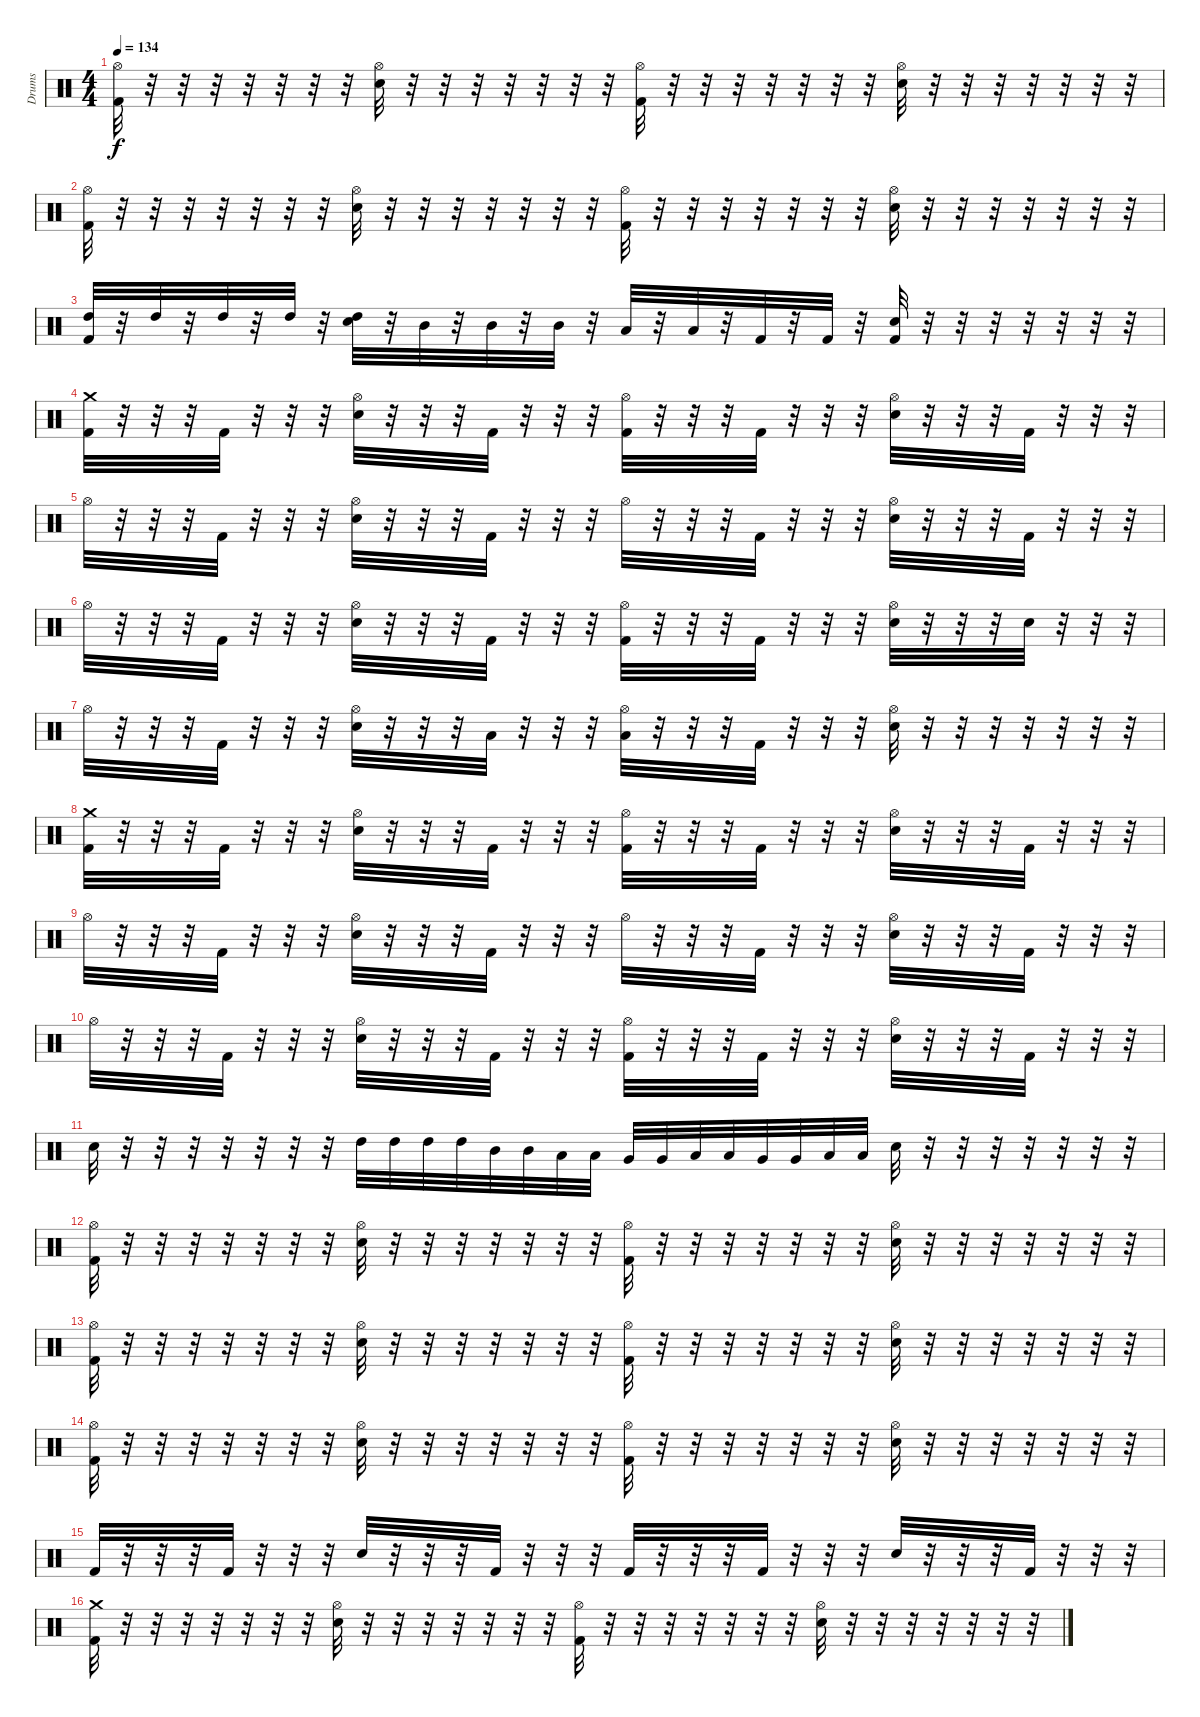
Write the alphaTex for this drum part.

\track ("Drums" "Drums") {instrument percussion}
\staff {score}
\articulation defaults
\ts (4 4)
\tempo 134
\clef neutral
\ks c
("Kick (hit) 2" "Hi-Hat (open)").32{dy f} r.32 r.32 r.32 r.32 r.32 r.32 r.32 ("Electric Snare (hit)" "Hi-Hat (open)").32 r.32 r.32 r.32 r.32 r.32 r.32 r.32 ("Kick (hit) 2" "Hi-Hat (open)").32 r.32 r.32 r.32 r.32 r.32 r.32 r.32 ("Electric Snare (hit)" "Hi-Hat (open)").32 r.32 r.32 r.32 r.32 r.32 r.32 r.32 |
("Kick (hit) 2" "Hi-Hat (open)").32 r.32 r.32 r.32 r.32 r.32 r.32 r.32 ("Electric Snare (hit)" "Hi-Hat (open)").32 r.32 r.32 r.32 r.32 r.32 r.32 r.32 ("Kick (hit) 2" "Hi-Hat (open)").32 r.32 r.32 r.32 r.32 r.32 r.32 r.32 ("Electric Snare (hit)" "Hi-Hat (open)").32 r.32 r.32 r.32 r.32 r.32 r.32 r.32 |
("Kick (hit) 2" "High Tom (hit)").32 r.32 "High Tom (hit)".32 r.32 "High Tom (hit)".32 r.32 "High Tom (hit)".32 r.32 ("Electric Snare (hit)" "High Tom (hit)").32 r.32 "Mid Tom (hit)".32 r.32 "Mid Tom (hit)".32 r.32 "Mid Tom (hit)".32 r.32 "Low Tom (hit)".32 r.32 "Low Tom (hit)".32 r.32 "Kick (hit) 2".32 r.32 "Kick (hit) 2".32 r.32 ("Electric Snare (hit)" "Kick (hit) 2").32 r.32 r.32 r.32 r.32 r.32 r.32 r.32 |
("Kick (hit) 2" "Crash medium (hit)").32 r.32 r.32 r.32 "Kick (hit) 2".32 r.32 r.32 r.32 ("Electric Snare (hit)" "Hi-Hat (open)").32 r.32 r.32 r.32 "Kick (hit) 2".32 r.32 r.32 r.32 ("Kick (hit) 2" "Hi-Hat (open)").32 r.32 r.32 r.32 "Kick (hit) 2".32 r.32 r.32 r.32 ("Electric Snare (hit)" "Hi-Hat (open)").32 r.32 r.32 r.32 "Kick (hit) 2".32 r.32 r.32 r.32 |
"Hi-Hat (open)".32 r.32 r.32 r.32 "Kick (hit) 2".32 r.32 r.32 r.32 ("Electric Snare (hit)" "Hi-Hat (open)").32 r.32 r.32 r.32 "Kick (hit) 2".32 r.32 r.32 r.32 "Hi-Hat (open)".32 r.32 r.32 r.32 "Kick (hit) 2".32 r.32 r.32 r.32 ("Electric Snare (hit)" "Hi-Hat (open)").32 r.32 r.32 r.32 "Kick (hit) 2".32 r.32 r.32 r.32 |
"Hi-Hat (open)".32 r.32 r.32 r.32 "Kick (hit) 2".32 r.32 r.32 r.32 ("Electric Snare (hit)" "Hi-Hat (open)").32 r.32 r.32 r.32 "Kick (hit) 2".32 r.32 r.32 r.32 ("Kick (hit) 2" "Hi-Hat (open)").32 r.32 r.32 r.32 "Kick (hit) 2".32 r.32 r.32 r.32 ("Electric Snare (hit)" "Hi-Hat (open)").32 r.32 r.32 r.32 "Electric Snare (hit)".32 r.32 r.32 r.32 |
"Hi-Hat (open)".32 r.32 r.32 r.32 "Kick (hit) 2".32 r.32 r.32 r.32 ("Electric Snare (hit)" "Hi-Hat (open)").32 r.32 r.32 r.32 "Low Tom (hit)".32 r.32 r.32 r.32 ("Low Floor Tom (hit)" "Hi-Hat (open)").32 r.32 r.32 r.32 "Kick (hit) 2".32 r.32 r.32 r.32 ("Electric Snare (hit)" "Hi-Hat (open)").32 r.32 r.32 r.32 r.32 r.32 r.32 r.32 |
("Kick (hit) 2" "Crash medium (hit)").32 r.32 r.32 r.32 "Kick (hit) 2".32 r.32 r.32 r.32 ("Electric Snare (hit)" "Hi-Hat (open)").32 r.32 r.32 r.32 "Kick (hit) 2".32 r.32 r.32 r.32 ("Kick (hit) 2" "Hi-Hat (open)").32 r.32 r.32 r.32 "Kick (hit) 2".32 r.32 r.32 r.32 ("Electric Snare (hit)" "Hi-Hat (open)").32 r.32 r.32 r.32 "Kick (hit) 2".32 r.32 r.32 r.32 |
"Hi-Hat (open)".32 r.32 r.32 r.32 "Kick (hit) 2".32 r.32 r.32 r.32 ("Electric Snare (hit)" "Hi-Hat (open)").32 r.32 r.32 r.32 "Kick (hit) 2".32 r.32 r.32 r.32 "Hi-Hat (open)".32 r.32 r.32 r.32 "Kick (hit) 2".32 r.32 r.32 r.32 ("Electric Snare (hit)" "Hi-Hat (open)").32 r.32 r.32 r.32 "Kick (hit) 2".32 r.32 r.32 r.32 |
"Hi-Hat (open)".32 r.32 r.32 r.32 "Kick (hit) 2".32 r.32 r.32 r.32 ("Electric Snare (hit)" "Hi-Hat (open)").32 r.32 r.32 r.32 "Kick (hit) 2".32 r.32 r.32 r.32 ("Kick (hit) 2" "Hi-Hat (open)").32 r.32 r.32 r.32 "Kick (hit) 2".32 r.32 r.32 r.32 ("Electric Snare (hit)" "Hi-Hat (open)").32 r.32 r.32 r.32 "Kick (hit) 2".32 r.32 r.32 r.32 |
"Electric Snare (hit)".32 r.32 r.32 r.32 r.32 r.32 r.32 r.32 "High Tom (hit)".32 "High Tom (hit)".32 "High Tom (hit)".32 "High Tom (hit)".32 "Mid Tom (hit)".32 "Mid Tom (hit)".32 "Low Tom (hit)".32 "Low Tom (hit)".32 "Very Low Tom (hit)".32 "Very Low Tom (hit)".32 "Low Floor Tom (hit)".32 "Low Floor Tom (hit)".32 "Very Low Tom (hit)".32 "Very Low Tom (hit)".32 "Low Floor Tom (hit)".32 "Low Floor Tom (hit)".32 "Electric Snare (hit)".32 r.32 r.32 r.32 r.32 r.32 r.32 r.32 |
("Kick (hit) 2" "Hi-Hat (open)").32 r.32 r.32 r.32 r.32 r.32 r.32 r.32 ("Electric Snare (hit)" "Hi-Hat (open)").32 r.32 r.32 r.32 r.32 r.32 r.32 r.32 ("Kick (hit) 2" "Hi-Hat (open)").32 r.32 r.32 r.32 r.32 r.32 r.32 r.32 ("Electric Snare (hit)" "Hi-Hat (open)").32 r.32 r.32 r.32 r.32 r.32 r.32 r.32 |
("Kick (hit) 2" "Hi-Hat (open)").32 r.32 r.32 r.32 r.32 r.32 r.32 r.32 ("Electric Snare (hit)" "Hi-Hat (open)").32 r.32 r.32 r.32 r.32 r.32 r.32 r.32 ("Kick (hit) 2" "Hi-Hat (open)").32 r.32 r.32 r.32 r.32 r.32 r.32 r.32 ("Electric Snare (hit)" "Hi-Hat (open)").32 r.32 r.32 r.32 r.32 r.32 r.32 r.32 |
("Kick (hit) 2" "Hi-Hat (open)").32 r.32 r.32 r.32 r.32 r.32 r.32 r.32 ("Electric Snare (hit)" "Hi-Hat (open)").32 r.32 r.32 r.32 r.32 r.32 r.32 r.32 ("Kick (hit) 2" "Hi-Hat (open)").32 r.32 r.32 r.32 r.32 r.32 r.32 r.32 ("Electric Snare (hit)" "Hi-Hat (open)").32 r.32 r.32 r.32 r.32 r.32 r.32 r.32 |
"Kick (hit) 2".32 r.32 r.32 r.32 "Kick (hit) 2".32 r.32 r.32 r.32 "Electric Snare (hit)".32 r.32 r.32 r.32 "Kick (hit) 2".32 r.32 r.32 r.32 "Kick (hit) 2".32 r.32 r.32 r.32 "Kick (hit) 2".32 r.32 r.32 r.32 "Electric Snare (hit)".32 r.32 r.32 r.32 "Kick (hit) 2".32 r.32 r.32 r.32 |
("Kick (hit) 2" "Crash medium (hit)").32 r.32 r.32 r.32 r.32 r.32 r.32 r.32 ("Electric Snare (hit)" "Hi-Hat (open)").32 r.32 r.32 r.32 r.32 r.32 r.32 r.32 ("Kick (hit) 2" "Hi-Hat (open)").32 r.32 r.32 r.32 r.32 r.32 r.32 r.32 ("Electric Snare (hit)" "Hi-Hat (open)").32 r.32 r.32 r.32 r.32 r.32 r.32 r.32
